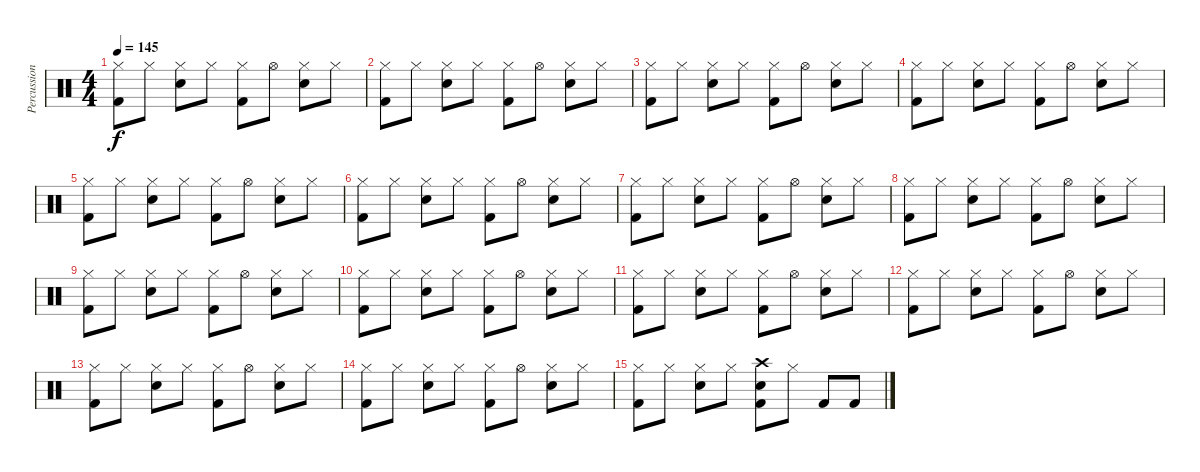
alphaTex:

\track ("Percussion" "Percussion") {instrument percussion}
\staff {score}
\articulation defaults
\ts (4 4)
\tempo 145
\clef neutral
\ks c
("Hi-Hat (closed)" "Kick (hit) 2").8{dy f} "Hi-Hat (closed)".8 ("Hi-Hat (closed)" "Snare (hit) 2").8 "Hi-Hat (closed)".8 ("Hi-Hat (closed)" "Kick (hit) 2").8 "Hi-Hat (open)".8 ("Hi-Hat (closed)" "Snare (hit) 2").8 "Hi-Hat (closed)".8 |
("Hi-Hat (closed)" "Kick (hit) 2").8 "Hi-Hat (closed)".8 ("Hi-Hat (closed)" "Snare (hit) 2").8 "Hi-Hat (closed)".8 ("Hi-Hat (closed)" "Kick (hit) 2").8 "Hi-Hat (open)".8 ("Hi-Hat (closed)" "Snare (hit) 2").8 "Hi-Hat (closed)".8 |
("Hi-Hat (closed)" "Kick (hit) 2").8 "Hi-Hat (closed)".8 ("Hi-Hat (closed)" "Snare (hit) 2").8 "Hi-Hat (closed)".8 ("Hi-Hat (closed)" "Kick (hit) 2").8 "Hi-Hat (open)".8 ("Hi-Hat (closed)" "Snare (hit) 2").8 "Hi-Hat (closed)".8 |
("Hi-Hat (closed)" "Kick (hit) 2").8 "Hi-Hat (closed)".8 ("Hi-Hat (closed)" "Snare (hit) 2").8 "Hi-Hat (closed)".8 ("Hi-Hat (closed)" "Kick (hit) 2").8 "Hi-Hat (open)".8 ("Hi-Hat (closed)" "Snare (hit) 2").8 "Hi-Hat (closed)".8 |
("Hi-Hat (closed)" "Kick (hit) 2").8 "Hi-Hat (closed)".8 ("Hi-Hat (closed)" "Snare (hit) 2").8 "Hi-Hat (closed)".8 ("Hi-Hat (closed)" "Kick (hit) 2").8 "Hi-Hat (open)".8 ("Hi-Hat (closed)" "Snare (hit) 2").8 "Hi-Hat (closed)".8 |
("Hi-Hat (closed)" "Kick (hit) 2").8 "Hi-Hat (closed)".8 ("Hi-Hat (closed)" "Snare (hit) 2").8 "Hi-Hat (closed)".8 ("Hi-Hat (closed)" "Kick (hit) 2").8 "Hi-Hat (open)".8 ("Hi-Hat (closed)" "Snare (hit) 2").8 "Hi-Hat (closed)".8 |
("Hi-Hat (closed)" "Kick (hit) 2").8 "Hi-Hat (closed)".8 ("Hi-Hat (closed)" "Snare (hit) 2").8 "Hi-Hat (closed)".8 ("Hi-Hat (closed)" "Kick (hit) 2").8 "Hi-Hat (open)".8 ("Hi-Hat (closed)" "Snare (hit) 2").8 "Hi-Hat (closed)".8 |
("Hi-Hat (closed)" "Kick (hit) 2").8 "Hi-Hat (closed)".8 ("Hi-Hat (closed)" "Snare (hit) 2").8 "Hi-Hat (closed)".8 ("Hi-Hat (closed)" "Kick (hit) 2").8 "Hi-Hat (open)".8 ("Hi-Hat (closed)" "Snare (hit) 2").8 "Hi-Hat (closed)".8 |
("Hi-Hat (closed)" "Kick (hit) 2").8 "Hi-Hat (closed)".8 ("Hi-Hat (closed)" "Snare (hit) 2").8 "Hi-Hat (closed)".8 ("Hi-Hat (closed)" "Kick (hit) 2").8 "Hi-Hat (open)".8 ("Hi-Hat (closed)" "Snare (hit) 2").8 "Hi-Hat (closed)".8 |
("Hi-Hat (closed)" "Kick (hit) 2").8 "Hi-Hat (closed)".8 ("Hi-Hat (closed)" "Snare (hit) 2").8 "Hi-Hat (closed)".8 ("Hi-Hat (closed)" "Kick (hit) 2").8 "Hi-Hat (open)".8 ("Hi-Hat (closed)" "Snare (hit) 2").8 "Hi-Hat (closed)".8 |
("Hi-Hat (closed)" "Kick (hit) 2").8 "Hi-Hat (closed)".8 ("Hi-Hat (closed)" "Snare (hit) 2").8 "Hi-Hat (closed)".8 ("Hi-Hat (closed)" "Kick (hit) 2").8 "Hi-Hat (open)".8 ("Hi-Hat (closed)" "Snare (hit) 2").8 "Hi-Hat (closed)".8 |
("Hi-Hat (closed)" "Kick (hit) 2").8 "Hi-Hat (closed)".8 ("Hi-Hat (closed)" "Snare (hit) 2").8 "Hi-Hat (closed)".8 ("Hi-Hat (closed)" "Kick (hit) 2").8 "Hi-Hat (open)".8 ("Hi-Hat (closed)" "Snare (hit) 2").8 "Hi-Hat (closed)".8 |
("Hi-Hat (closed)" "Kick (hit) 2").8 "Hi-Hat (closed)".8 ("Hi-Hat (closed)" "Snare (hit) 2").8 "Hi-Hat (closed)".8 ("Hi-Hat (closed)" "Kick (hit) 2").8 "Hi-Hat (open)".8 ("Hi-Hat (closed)" "Snare (hit) 2").8 "Hi-Hat (closed)".8 |
("Hi-Hat (closed)" "Kick (hit) 2").8 "Hi-Hat (closed)".8 ("Hi-Hat (closed)" "Snare (hit) 2").8 "Hi-Hat (closed)".8 ("Hi-Hat (closed)" "Kick (hit) 2").8 "Hi-Hat (open)".8 ("Hi-Hat (closed)" "Snare (hit) 2").8 "Hi-Hat (closed)".8 |
("Hi-Hat (closed)" "Kick (hit) 2").8 "Hi-Hat (closed)".8 ("Hi-Hat (closed)" "Snare (hit) 2").8 "Hi-Hat (closed)".8 ("Crash high (hit)" "Snare (hit) 2" "Kick (hit) 2").8 "Hi-Hat (closed)".8 "Kick (hit) 2".8 "Kick (hit) 2".8
